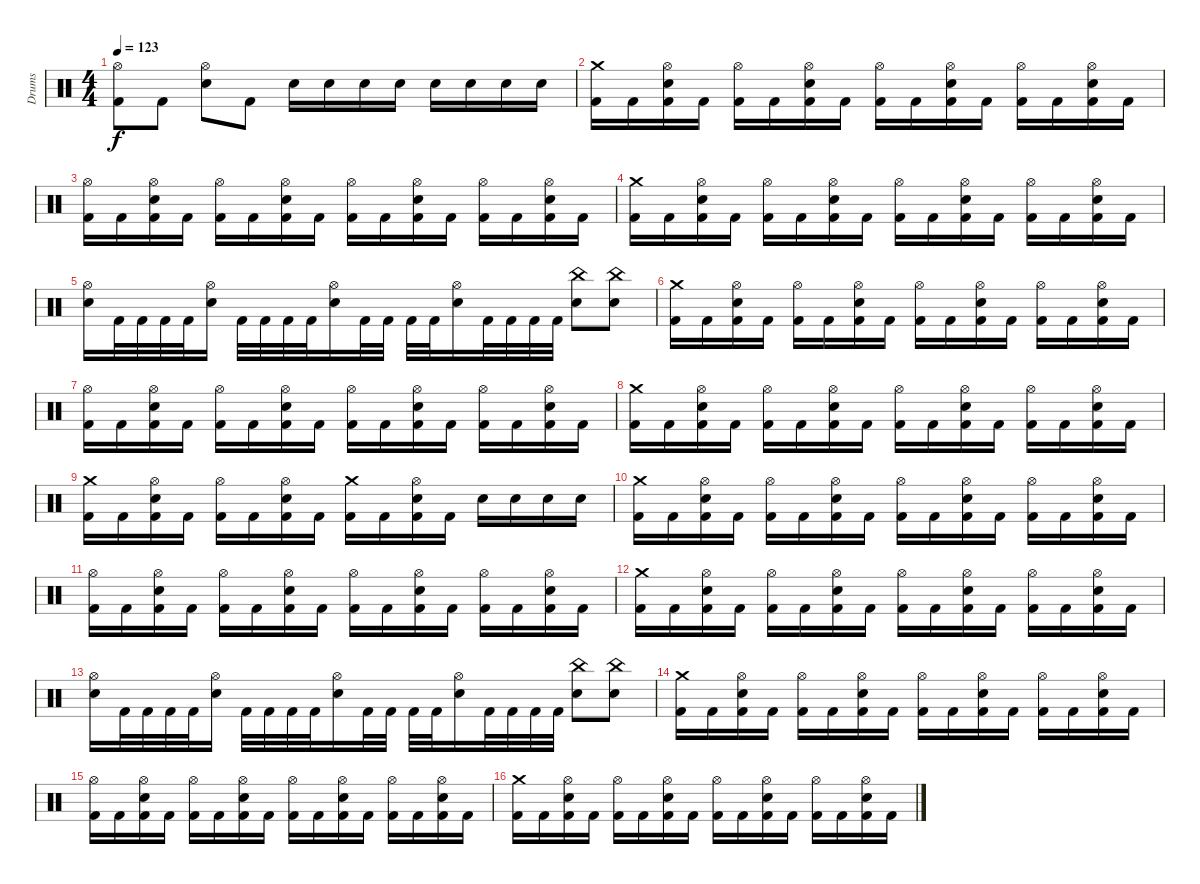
\track ("Drums" "Drums") {instrument percussion}
\staff {score}
\articulation defaults
\ts (4 4)
\tempo 123
\clef neutral
\ks c
("Kick (hit) 2" "Hi-Hat (open)").8{dy f} "Kick (hit) 2".8 ("Electric Snare (hit)" "Hi-Hat (open)").8 "Kick (hit) 2".8 "Electric Snare (hit)".16 "Electric Snare (hit)".16 "Electric Snare (hit)".16 "Electric Snare (hit)".16 "Electric Snare (hit)".16 "Electric Snare (hit)".16 "Electric Snare (hit)".16 "Electric Snare (hit)".16 |
("Kick (hit) 2" "Crash medium (hit)").16 "Kick (hit) 2".16 ("Hi-Hat (open)" "Kick (hit) 2" "Electric Snare (hit)").16 "Kick (hit) 2".16 ("Kick (hit) 2" "Hi-Hat (open)").16 "Kick (hit) 2".16 ("Kick (hit) 2" "Electric Snare (hit)" "Hi-Hat (open)").16 "Kick (hit) 2".16 ("Kick (hit) 2" "Hi-Hat (open)").16 "Kick (hit) 2".16 ("Kick (hit) 2" "Electric Snare (hit)" "Hi-Hat (open)").16 "Kick (hit) 2".16 ("Kick (hit) 2" "Hi-Hat (open)").16 "Kick (hit) 2".16 ("Kick (hit) 2" "Electric Snare (hit)" "Hi-Hat (open)").16 "Kick (hit) 2".16 |
("Hi-Hat (open)" "Kick (hit) 2").16 "Kick (hit) 2".16 ("Hi-Hat (open)" "Kick (hit) 2" "Electric Snare (hit)").16 "Kick (hit) 2".16 ("Kick (hit) 2" "Hi-Hat (open)").16 "Kick (hit) 2".16 ("Kick (hit) 2" "Electric Snare (hit)" "Hi-Hat (open)").16 "Kick (hit) 2".16 ("Kick (hit) 2" "Hi-Hat (open)").16 "Kick (hit) 2".16 ("Kick (hit) 2" "Electric Snare (hit)" "Hi-Hat (open)").16 "Kick (hit) 2".16 ("Kick (hit) 2" "Hi-Hat (open)").16 "Kick (hit) 2".16 ("Kick (hit) 2" "Electric Snare (hit)" "Hi-Hat (open)").16 "Kick (hit) 2".16 |
("Kick (hit) 2" "Crash medium (hit)").16 "Kick (hit) 2".16 ("Hi-Hat (open)" "Kick (hit) 2" "Electric Snare (hit)").16 "Kick (hit) 2".16 ("Kick (hit) 2" "Hi-Hat (open)").16 "Kick (hit) 2".16 ("Kick (hit) 2" "Electric Snare (hit)" "Hi-Hat (open)").16 "Kick (hit) 2".16 ("Kick (hit) 2" "Hi-Hat (open)").16 "Kick (hit) 2".16 ("Kick (hit) 2" "Electric Snare (hit)" "Hi-Hat (open)").16 "Kick (hit) 2".16 ("Kick (hit) 2" "Hi-Hat (open)").16 "Kick (hit) 2".16 ("Kick (hit) 2" "Electric Snare (hit)" "Hi-Hat (open)").16 "Kick (hit) 2".16 |
("Electric Snare (hit)" "Hi-Hat (open)").16 "Kick (hit) 2".32 "Kick (hit) 2".32 "Kick (hit) 2".32 "Kick (hit) 2".32 ("Hi-Hat (open)" "Electric Snare (hit)").16 "Kick (hit) 2".32 "Kick (hit) 2".32 "Kick (hit) 2".32 "Kick (hit) 2".32 ("Hi-Hat (open)" "Electric Snare (hit)").16 "Kick (hit) 2".32 "Kick (hit) 2".32 "Kick (hit) 2".32 "Kick (hit) 2".32 ("Hi-Hat (open)" "Electric Snare (hit)").16 "Kick (hit) 2".32 "Kick (hit) 2".32 "Kick (hit) 2".32 "Kick (hit) 2".32 ("China (hit)" "Electric Snare (hit)").8 ("China (hit)" "Electric Snare (hit)").8 |
("Kick (hit) 2" "Crash medium (hit)").16 "Kick (hit) 2".16 ("Hi-Hat (open)" "Kick (hit) 2" "Electric Snare (hit)").16 "Kick (hit) 2".16 ("Kick (hit) 2" "Hi-Hat (open)").16 "Kick (hit) 2".16 ("Kick (hit) 2" "Electric Snare (hit)" "Hi-Hat (open)").16 "Kick (hit) 2".16 ("Kick (hit) 2" "Hi-Hat (open)").16 "Kick (hit) 2".16 ("Kick (hit) 2" "Electric Snare (hit)" "Hi-Hat (open)").16 "Kick (hit) 2".16 ("Kick (hit) 2" "Hi-Hat (open)").16 "Kick (hit) 2".16 ("Kick (hit) 2" "Electric Snare (hit)" "Hi-Hat (open)").16 "Kick (hit) 2".16 |
("Hi-Hat (open)" "Kick (hit) 2").16 "Kick (hit) 2".16 ("Hi-Hat (open)" "Kick (hit) 2" "Electric Snare (hit)").16 "Kick (hit) 2".16 ("Kick (hit) 2" "Hi-Hat (open)").16 "Kick (hit) 2".16 ("Kick (hit) 2" "Electric Snare (hit)" "Hi-Hat (open)").16 "Kick (hit) 2".16 ("Kick (hit) 2" "Hi-Hat (open)").16 "Kick (hit) 2".16 ("Kick (hit) 2" "Electric Snare (hit)" "Hi-Hat (open)").16 "Kick (hit) 2".16 ("Kick (hit) 2" "Hi-Hat (open)").16 "Kick (hit) 2".16 ("Kick (hit) 2" "Electric Snare (hit)" "Hi-Hat (open)").16 "Kick (hit) 2".16 |
("Kick (hit) 2" "Crash medium (hit)").16 "Kick (hit) 2".16 ("Hi-Hat (open)" "Kick (hit) 2" "Electric Snare (hit)").16 "Kick (hit) 2".16 ("Kick (hit) 2" "Hi-Hat (open)").16 "Kick (hit) 2".16 ("Kick (hit) 2" "Electric Snare (hit)" "Hi-Hat (open)").16 "Kick (hit) 2".16 ("Kick (hit) 2" "Hi-Hat (open)").16 "Kick (hit) 2".16 ("Kick (hit) 2" "Electric Snare (hit)" "Hi-Hat (open)").16 "Kick (hit) 2".16 ("Kick (hit) 2" "Hi-Hat (open)").16 "Kick (hit) 2".16 ("Kick (hit) 2" "Electric Snare (hit)" "Hi-Hat (open)").16 "Kick (hit) 2".16 |
("Kick (hit) 2" "Crash medium (hit)").16 "Kick (hit) 2".16 ("Hi-Hat (open)" "Kick (hit) 2" "Electric Snare (hit)").16 "Kick (hit) 2".16 ("Kick (hit) 2" "Hi-Hat (open)").16 "Kick (hit) 2".16 ("Kick (hit) 2" "Electric Snare (hit)" "Hi-Hat (open)").16 "Kick (hit) 2".16 ("Crash medium (hit)" "Kick (hit) 2").16 "Kick (hit) 2".16 ("Kick (hit) 2" "Electric Snare (hit)" "Hi-Hat (open)").16 "Kick (hit) 2".16 "Electric Snare (hit)".16 "Electric Snare (hit)".16 "Electric Snare (hit)".16 "Electric Snare (hit)".16 |
("Kick (hit) 2" "Crash medium (hit)").16 "Kick (hit) 2".16 ("Hi-Hat (open)" "Kick (hit) 2" "Electric Snare (hit)").16 "Kick (hit) 2".16 ("Kick (hit) 2" "Hi-Hat (open)").16 "Kick (hit) 2".16 ("Kick (hit) 2" "Electric Snare (hit)" "Hi-Hat (open)").16 "Kick (hit) 2".16 ("Kick (hit) 2" "Hi-Hat (open)").16 "Kick (hit) 2".16 ("Kick (hit) 2" "Electric Snare (hit)" "Hi-Hat (open)").16 "Kick (hit) 2".16 ("Kick (hit) 2" "Hi-Hat (open)").16 "Kick (hit) 2".16 ("Kick (hit) 2" "Electric Snare (hit)" "Hi-Hat (open)").16 "Kick (hit) 2".16 |
("Hi-Hat (open)" "Kick (hit) 2").16 "Kick (hit) 2".16 ("Hi-Hat (open)" "Kick (hit) 2" "Electric Snare (hit)").16 "Kick (hit) 2".16 ("Kick (hit) 2" "Hi-Hat (open)").16 "Kick (hit) 2".16 ("Kick (hit) 2" "Electric Snare (hit)" "Hi-Hat (open)").16 "Kick (hit) 2".16 ("Kick (hit) 2" "Hi-Hat (open)").16 "Kick (hit) 2".16 ("Kick (hit) 2" "Electric Snare (hit)" "Hi-Hat (open)").16 "Kick (hit) 2".16 ("Kick (hit) 2" "Hi-Hat (open)").16 "Kick (hit) 2".16 ("Kick (hit) 2" "Electric Snare (hit)" "Hi-Hat (open)").16 "Kick (hit) 2".16 |
("Kick (hit) 2" "Crash medium (hit)").16 "Kick (hit) 2".16 ("Hi-Hat (open)" "Kick (hit) 2" "Electric Snare (hit)").16 "Kick (hit) 2".16 ("Kick (hit) 2" "Hi-Hat (open)").16 "Kick (hit) 2".16 ("Kick (hit) 2" "Electric Snare (hit)" "Hi-Hat (open)").16 "Kick (hit) 2".16 ("Kick (hit) 2" "Hi-Hat (open)").16 "Kick (hit) 2".16 ("Kick (hit) 2" "Electric Snare (hit)" "Hi-Hat (open)").16 "Kick (hit) 2".16 ("Kick (hit) 2" "Hi-Hat (open)").16 "Kick (hit) 2".16 ("Kick (hit) 2" "Electric Snare (hit)" "Hi-Hat (open)").16 "Kick (hit) 2".16 |
("Electric Snare (hit)" "Hi-Hat (open)").16 "Kick (hit) 2".32 "Kick (hit) 2".32 "Kick (hit) 2".32 "Kick (hit) 2".32 ("Hi-Hat (open)" "Electric Snare (hit)").16 "Kick (hit) 2".32 "Kick (hit) 2".32 "Kick (hit) 2".32 "Kick (hit) 2".32 ("Hi-Hat (open)" "Electric Snare (hit)").16 "Kick (hit) 2".32 "Kick (hit) 2".32 "Kick (hit) 2".32 "Kick (hit) 2".32 ("Hi-Hat (open)" "Electric Snare (hit)").16 "Kick (hit) 2".32 "Kick (hit) 2".32 "Kick (hit) 2".32 "Kick (hit) 2".32 ("China (hit)" "Electric Snare (hit)").8 ("China (hit)" "Electric Snare (hit)").8 |
("Kick (hit) 2" "Crash medium (hit)").16 "Kick (hit) 2".16 ("Hi-Hat (open)" "Kick (hit) 2" "Electric Snare (hit)").16 "Kick (hit) 2".16 ("Kick (hit) 2" "Hi-Hat (open)").16 "Kick (hit) 2".16 ("Kick (hit) 2" "Electric Snare (hit)" "Hi-Hat (open)").16 "Kick (hit) 2".16 ("Kick (hit) 2" "Hi-Hat (open)").16 "Kick (hit) 2".16 ("Kick (hit) 2" "Electric Snare (hit)" "Hi-Hat (open)").16 "Kick (hit) 2".16 ("Kick (hit) 2" "Hi-Hat (open)").16 "Kick (hit) 2".16 ("Kick (hit) 2" "Electric Snare (hit)" "Hi-Hat (open)").16 "Kick (hit) 2".16 |
("Hi-Hat (open)" "Kick (hit) 2").16 "Kick (hit) 2".16 ("Hi-Hat (open)" "Kick (hit) 2" "Electric Snare (hit)").16 "Kick (hit) 2".16 ("Kick (hit) 2" "Hi-Hat (open)").16 "Kick (hit) 2".16 ("Kick (hit) 2" "Electric Snare (hit)" "Hi-Hat (open)").16 "Kick (hit) 2".16 ("Kick (hit) 2" "Hi-Hat (open)").16 "Kick (hit) 2".16 ("Kick (hit) 2" "Electric Snare (hit)" "Hi-Hat (open)").16 "Kick (hit) 2".16 ("Kick (hit) 2" "Hi-Hat (open)").16 "Kick (hit) 2".16 ("Kick (hit) 2" "Electric Snare (hit)" "Hi-Hat (open)").16 "Kick (hit) 2".16 |
("Kick (hit) 2" "Crash medium (hit)").16 "Kick (hit) 2".16 ("Hi-Hat (open)" "Kick (hit) 2" "Electric Snare (hit)").16 "Kick (hit) 2".16 ("Kick (hit) 2" "Hi-Hat (open)").16 "Kick (hit) 2".16 ("Kick (hit) 2" "Electric Snare (hit)" "Hi-Hat (open)").16 "Kick (hit) 2".16 ("Kick (hit) 2" "Hi-Hat (open)").16 "Kick (hit) 2".16 ("Kick (hit) 2" "Electric Snare (hit)" "Hi-Hat (open)").16 "Kick (hit) 2".16 ("Kick (hit) 2" "Hi-Hat (open)").16 "Kick (hit) 2".16 ("Kick (hit) 2" "Electric Snare (hit)" "Hi-Hat (open)").16 "Kick (hit) 2".16
